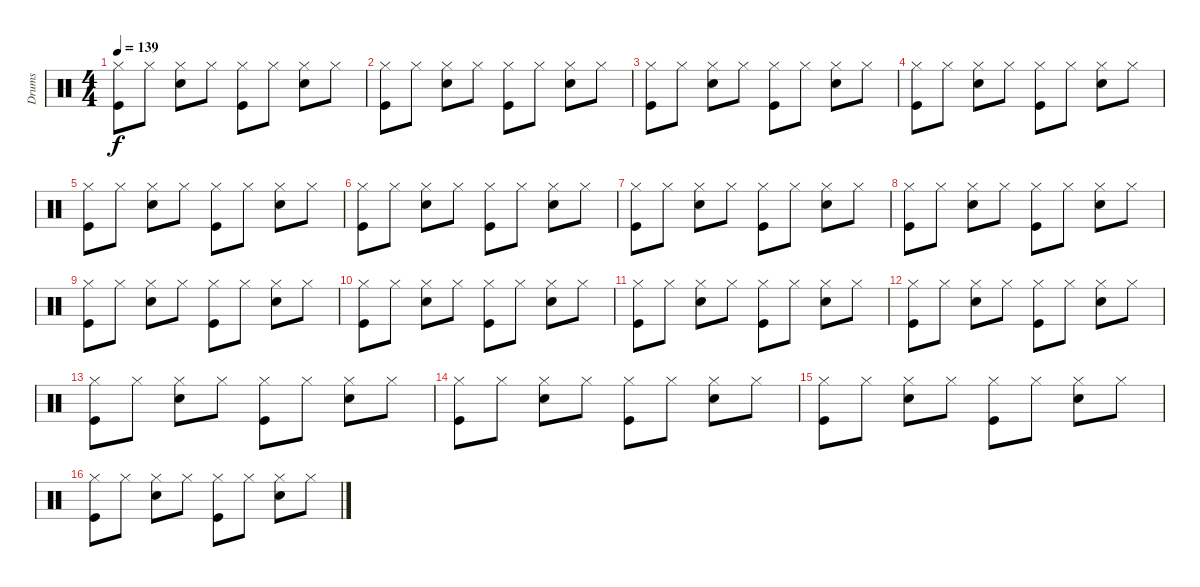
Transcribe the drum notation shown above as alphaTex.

\track ("Drums" "Drums") {instrument percussion}
\staff {score}
\articulation defaults
\ts (4 4)
\tempo 139
\clef neutral
\ks c
("Kick (hit)" "Hi-Hat (closed)").8{dy f} "Hi-Hat (closed)".8 ("Hi-Hat (closed)" "Snare (hit) 2").8 "Hi-Hat (closed)".8 ("Hi-Hat (closed)" "Kick (hit)").8 "Hi-Hat (closed)".8 ("Hi-Hat (closed)" "Snare (hit) 2").8 "Hi-Hat (closed)".8 |
("Kick (hit)" "Hi-Hat (closed)").8 "Hi-Hat (closed)".8 ("Hi-Hat (closed)" "Snare (hit) 2").8 "Hi-Hat (closed)".8 ("Hi-Hat (closed)" "Kick (hit)").8 "Hi-Hat (closed)".8 ("Hi-Hat (closed)" "Snare (hit) 2").8 "Hi-Hat (closed)".8 |
("Kick (hit)" "Hi-Hat (closed)").8 "Hi-Hat (closed)".8 ("Hi-Hat (closed)" "Snare (hit) 2").8 "Hi-Hat (closed)".8 ("Hi-Hat (closed)" "Kick (hit)").8 "Hi-Hat (closed)".8 ("Hi-Hat (closed)" "Snare (hit) 2").8 "Hi-Hat (closed)".8 |
("Kick (hit)" "Hi-Hat (closed)").8 "Hi-Hat (closed)".8 ("Hi-Hat (closed)" "Snare (hit) 2").8 "Hi-Hat (closed)".8 ("Hi-Hat (closed)" "Kick (hit)").8 "Hi-Hat (closed)".8 ("Hi-Hat (closed)" "Snare (hit) 2").8 "Hi-Hat (closed)".8 |
("Kick (hit)" "Hi-Hat (closed)").8 "Hi-Hat (closed)".8 ("Hi-Hat (closed)" "Snare (hit) 2").8 "Hi-Hat (closed)".8 ("Hi-Hat (closed)" "Kick (hit)").8 "Hi-Hat (closed)".8 ("Hi-Hat (closed)" "Snare (hit) 2").8 "Hi-Hat (closed)".8 |
("Kick (hit)" "Hi-Hat (closed)").8 "Hi-Hat (closed)".8 ("Hi-Hat (closed)" "Snare (hit) 2").8 "Hi-Hat (closed)".8 ("Hi-Hat (closed)" "Kick (hit)").8 "Hi-Hat (closed)".8 ("Hi-Hat (closed)" "Snare (hit) 2").8 "Hi-Hat (closed)".8 |
("Kick (hit)" "Hi-Hat (closed)").8 "Hi-Hat (closed)".8 ("Hi-Hat (closed)" "Snare (hit) 2").8 "Hi-Hat (closed)".8 ("Hi-Hat (closed)" "Kick (hit)").8 "Hi-Hat (closed)".8 ("Hi-Hat (closed)" "Snare (hit) 2").8 "Hi-Hat (closed)".8 |
("Kick (hit)" "Hi-Hat (closed)").8 "Hi-Hat (closed)".8 ("Hi-Hat (closed)" "Snare (hit) 2").8 "Hi-Hat (closed)".8 ("Hi-Hat (closed)" "Kick (hit)").8 "Hi-Hat (closed)".8 ("Hi-Hat (closed)" "Snare (hit) 2").8 "Hi-Hat (closed)".8 |
("Kick (hit)" "Hi-Hat (closed)").8 "Hi-Hat (closed)".8 ("Hi-Hat (closed)" "Snare (hit) 2").8 "Hi-Hat (closed)".8 ("Hi-Hat (closed)" "Kick (hit)").8 "Hi-Hat (closed)".8 ("Hi-Hat (closed)" "Snare (hit) 2").8 "Hi-Hat (closed)".8 |
("Kick (hit)" "Hi-Hat (closed)").8 "Hi-Hat (closed)".8 ("Hi-Hat (closed)" "Snare (hit) 2").8 "Hi-Hat (closed)".8 ("Hi-Hat (closed)" "Kick (hit)").8 "Hi-Hat (closed)".8 ("Hi-Hat (closed)" "Snare (hit) 2").8 "Hi-Hat (closed)".8 |
("Kick (hit)" "Hi-Hat (closed)").8 "Hi-Hat (closed)".8 ("Hi-Hat (closed)" "Snare (hit) 2").8 "Hi-Hat (closed)".8 ("Hi-Hat (closed)" "Kick (hit)").8 "Hi-Hat (closed)".8 ("Hi-Hat (closed)" "Snare (hit) 2").8 "Hi-Hat (closed)".8 |
("Kick (hit)" "Hi-Hat (closed)").8 "Hi-Hat (closed)".8 ("Hi-Hat (closed)" "Snare (hit) 2").8 "Hi-Hat (closed)".8 ("Hi-Hat (closed)" "Kick (hit)").8 "Hi-Hat (closed)".8 ("Hi-Hat (closed)" "Snare (hit) 2").8 "Hi-Hat (closed)".8 |
("Kick (hit)" "Hi-Hat (closed)").8 "Hi-Hat (closed)".8 ("Hi-Hat (closed)" "Snare (hit) 2").8 "Hi-Hat (closed)".8 ("Hi-Hat (closed)" "Kick (hit)").8 "Hi-Hat (closed)".8 ("Hi-Hat (closed)" "Snare (hit) 2").8 "Hi-Hat (closed)".8 |
("Kick (hit)" "Hi-Hat (closed)").8 "Hi-Hat (closed)".8 ("Hi-Hat (closed)" "Snare (hit) 2").8 "Hi-Hat (closed)".8 ("Hi-Hat (closed)" "Kick (hit)").8 "Hi-Hat (closed)".8 ("Hi-Hat (closed)" "Snare (hit) 2").8 "Hi-Hat (closed)".8 |
("Kick (hit)" "Hi-Hat (closed)").8 "Hi-Hat (closed)".8 ("Hi-Hat (closed)" "Snare (hit) 2").8 "Hi-Hat (closed)".8 ("Hi-Hat (closed)" "Kick (hit)").8 "Hi-Hat (closed)".8 ("Hi-Hat (closed)" "Snare (hit) 2").8 "Hi-Hat (closed)".8 |
("Kick (hit)" "Hi-Hat (closed)").8 "Hi-Hat (closed)".8 ("Hi-Hat (closed)" "Snare (hit) 2").8 "Hi-Hat (closed)".8 ("Hi-Hat (closed)" "Kick (hit)").8 "Hi-Hat (closed)".8 ("Hi-Hat (closed)" "Snare (hit) 2").8 "Hi-Hat (closed)".8
